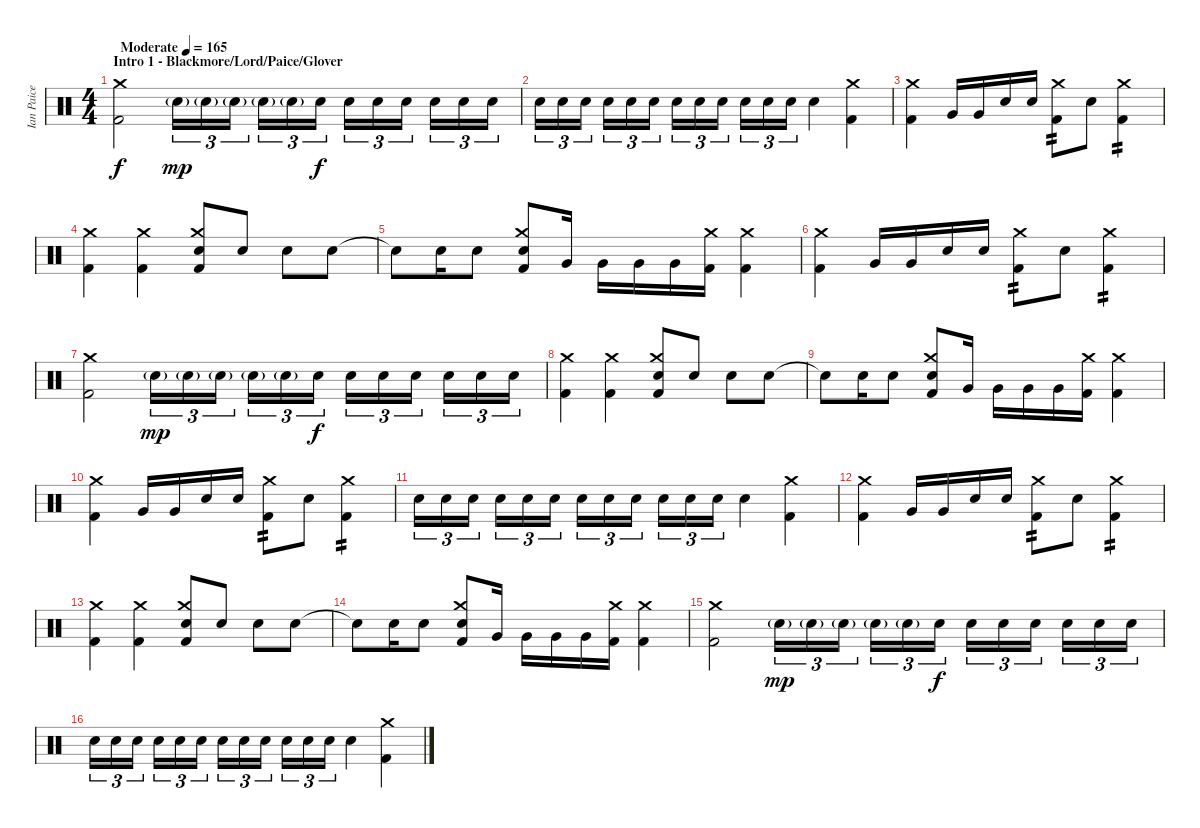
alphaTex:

\track ("Ian Paice - Drums" "Ian Paice ") {instrument percussion}
\staff {score}
\articulation defaults
\ts (4 4)
\section ("" "Intro 1 - Blackmore/Lord/Paice/Glover")
\tempo (165 "Moderate")
\clef neutral
\ks c
("Kick (hit) 2" "Crash medium (hit)").2{dy f} "Electric Snare (hit)"{g}.16{tu (3 2) dy mp} "Electric Snare (hit)"{g}.16{tu (3 2)} "Electric Snare (hit)"{g}.16{tu (3 2) beam splitsecondary} "Electric Snare (hit)"{g}.16{tu (3 2)} "Electric Snare (hit)"{g}.16{tu (3 2)} "Electric Snare (hit)".16{tu (3 2) dy f} "Electric Snare (hit)".16{tu (3 2)} "Electric Snare (hit)".16{tu (3 2)} "Electric Snare (hit)".16{tu (3 2) beam splitsecondary} "Electric Snare (hit)".16{tu (3 2)} "Electric Snare (hit)".16{tu (3 2)} "Electric Snare (hit)".16{tu (3 2)} |
"Electric Snare (hit)".16{tu (3 2)} "Electric Snare (hit)".16{tu (3 2)} "Electric Snare (hit)".16{tu (3 2) beam splitsecondary} "Electric Snare (hit)".16{tu (3 2)} "Electric Snare (hit)".16{tu (3 2)} "Electric Snare (hit)".16{tu (3 2)} "Electric Snare (hit)".16{tu (3 2)} "Electric Snare (hit)".16{tu (3 2)} "Electric Snare (hit)".16{tu (3 2) beam splitsecondary} "Electric Snare (hit)".16{tu (3 2)} "Electric Snare (hit)".16{tu (3 2)} "Electric Snare (hit)".16{tu (3 2)} "Electric Snare (hit)".4 ("Kick (hit) 2" "Crash medium (hit)").4 |
("Kick (hit) 2" "Crash medium (hit)").4 "Very Low Tom (hit)".16 "Very Low Tom (hit)".16 "Electric Snare (hit)".16 "Electric Snare (hit)".16 ("Kick (hit) 2" "Crash medium (hit)").8{tp 2} "Electric Snare (hit)".8 ("Kick (hit) 2" "Crash medium (hit)").4{tp 2} |
("Kick (hit) 2" "Crash medium (hit)").4 ("Kick (hit) 2" "Crash medium (hit)").4 ("Kick (hit) 2" "Crash medium (hit)" "Electric Snare (hit)").8 "Electric Snare (hit)".8 "Electric Snare (hit)".8 "Electric Snare (hit)".8 |
"Snare (hit)"{t}.8 "Electric Snare (hit)".16 "Electric Snare (hit)".8 ("Kick (hit) 2" "Crash medium (hit)" "Electric Snare (hit)").8 "Very Low Tom (hit)".16 "Very Low Tom (hit)".16 "Very Low Tom (hit)".16 "Very Low Tom (hit)".16 ("Kick (hit) 2" "Crash medium (hit)").16 ("Kick (hit) 2" "Crash medium (hit)").4 |
("Kick (hit) 2" "Crash medium (hit)").4 "Very Low Tom (hit)".16 "Very Low Tom (hit)".16 "Electric Snare (hit)".16 "Electric Snare (hit)".16 ("Kick (hit) 2" "Crash medium (hit)").8{tp 2} "Electric Snare (hit)".8 ("Kick (hit) 2" "Crash medium (hit)").4{tp 2} |
("Kick (hit) 2" "Crash medium (hit)").2 "Electric Snare (hit)"{g}.16{tu (3 2) dy mp} "Electric Snare (hit)"{g}.16{tu (3 2)} "Electric Snare (hit)"{g}.16{tu (3 2) beam splitsecondary} "Electric Snare (hit)"{g}.16{tu (3 2)} "Electric Snare (hit)"{g}.16{tu (3 2)} "Electric Snare (hit)".16{tu (3 2) dy f} "Electric Snare (hit)".16{tu (3 2)} "Electric Snare (hit)".16{tu (3 2)} "Electric Snare (hit)".16{tu (3 2) beam splitsecondary} "Electric Snare (hit)".16{tu (3 2)} "Electric Snare (hit)".16{tu (3 2)} "Electric Snare (hit)".16{tu (3 2)} |
("Kick (hit) 2" "Crash medium (hit)").4 ("Kick (hit) 2" "Crash medium (hit)").4 ("Kick (hit) 2" "Crash medium (hit)" "Electric Snare (hit)").8 "Electric Snare (hit)".8 "Electric Snare (hit)".8 "Electric Snare (hit)".8 |
"Snare (hit)"{t}.8 "Electric Snare (hit)".16 "Electric Snare (hit)".8 ("Kick (hit) 2" "Crash medium (hit)" "Electric Snare (hit)").8 "Very Low Tom (hit)".16 "Very Low Tom (hit)".16 "Very Low Tom (hit)".16 "Very Low Tom (hit)".16 ("Kick (hit) 2" "Crash medium (hit)").16 ("Kick (hit) 2" "Crash medium (hit)").4 |
("Kick (hit) 2" "Crash medium (hit)").4 "Very Low Tom (hit)".16 "Very Low Tom (hit)".16 "Electric Snare (hit)".16 "Electric Snare (hit)".16 ("Kick (hit) 2" "Crash medium (hit)").8{tp 2} "Electric Snare (hit)".8 ("Kick (hit) 2" "Crash medium (hit)").4{tp 2} |
"Electric Snare (hit)".16{tu (3 2)} "Electric Snare (hit)".16{tu (3 2)} "Electric Snare (hit)".16{tu (3 2) beam splitsecondary} "Electric Snare (hit)".16{tu (3 2)} "Electric Snare (hit)".16{tu (3 2)} "Electric Snare (hit)".16{tu (3 2)} "Electric Snare (hit)".16{tu (3 2)} "Electric Snare (hit)".16{tu (3 2)} "Electric Snare (hit)".16{tu (3 2) beam splitsecondary} "Electric Snare (hit)".16{tu (3 2)} "Electric Snare (hit)".16{tu (3 2)} "Electric Snare (hit)".16{tu (3 2)} "Electric Snare (hit)".4 ("Kick (hit) 2" "Crash medium (hit)").4 |
("Kick (hit) 2" "Crash medium (hit)").4 "Very Low Tom (hit)".16 "Very Low Tom (hit)".16 "Electric Snare (hit)".16 "Electric Snare (hit)".16 ("Kick (hit) 2" "Crash medium (hit)").8{tp 2} "Electric Snare (hit)".8 ("Kick (hit) 2" "Crash medium (hit)").4{tp 2} |
("Kick (hit) 2" "Crash medium (hit)").4 ("Kick (hit) 2" "Crash medium (hit)").4 ("Kick (hit) 2" "Crash medium (hit)" "Electric Snare (hit)").8 "Electric Snare (hit)".8 "Electric Snare (hit)".8 "Electric Snare (hit)".8 |
"Snare (hit)"{t}.8 "Electric Snare (hit)".16 "Electric Snare (hit)".8 ("Kick (hit) 2" "Crash medium (hit)" "Electric Snare (hit)").8 "Very Low Tom (hit)".16 "Very Low Tom (hit)".16 "Very Low Tom (hit)".16 "Very Low Tom (hit)".16 ("Kick (hit) 2" "Crash medium (hit)").16 ("Kick (hit) 2" "Crash medium (hit)").4 |
("Kick (hit) 2" "Crash medium (hit)").2 "Electric Snare (hit)"{g}.16{tu (3 2) dy mp} "Electric Snare (hit)"{g}.16{tu (3 2)} "Electric Snare (hit)"{g}.16{tu (3 2) beam splitsecondary} "Electric Snare (hit)"{g}.16{tu (3 2)} "Electric Snare (hit)"{g}.16{tu (3 2)} "Electric Snare (hit)".16{tu (3 2) dy f} "Electric Snare (hit)".16{tu (3 2)} "Electric Snare (hit)".16{tu (3 2)} "Electric Snare (hit)".16{tu (3 2) beam splitsecondary} "Electric Snare (hit)".16{tu (3 2)} "Electric Snare (hit)".16{tu (3 2)} "Electric Snare (hit)".16{tu (3 2)} |
"Electric Snare (hit)".16{tu (3 2)} "Electric Snare (hit)".16{tu (3 2)} "Electric Snare (hit)".16{tu (3 2) beam splitsecondary} "Electric Snare (hit)".16{tu (3 2)} "Electric Snare (hit)".16{tu (3 2)} "Electric Snare (hit)".16{tu (3 2)} "Electric Snare (hit)".16{tu (3 2)} "Electric Snare (hit)".16{tu (3 2)} "Electric Snare (hit)".16{tu (3 2) beam splitsecondary} "Electric Snare (hit)".16{tu (3 2)} "Electric Snare (hit)".16{tu (3 2)} "Electric Snare (hit)".16{tu (3 2)} "Electric Snare (hit)".4 ("Kick (hit) 2" "Crash medium (hit)").4
